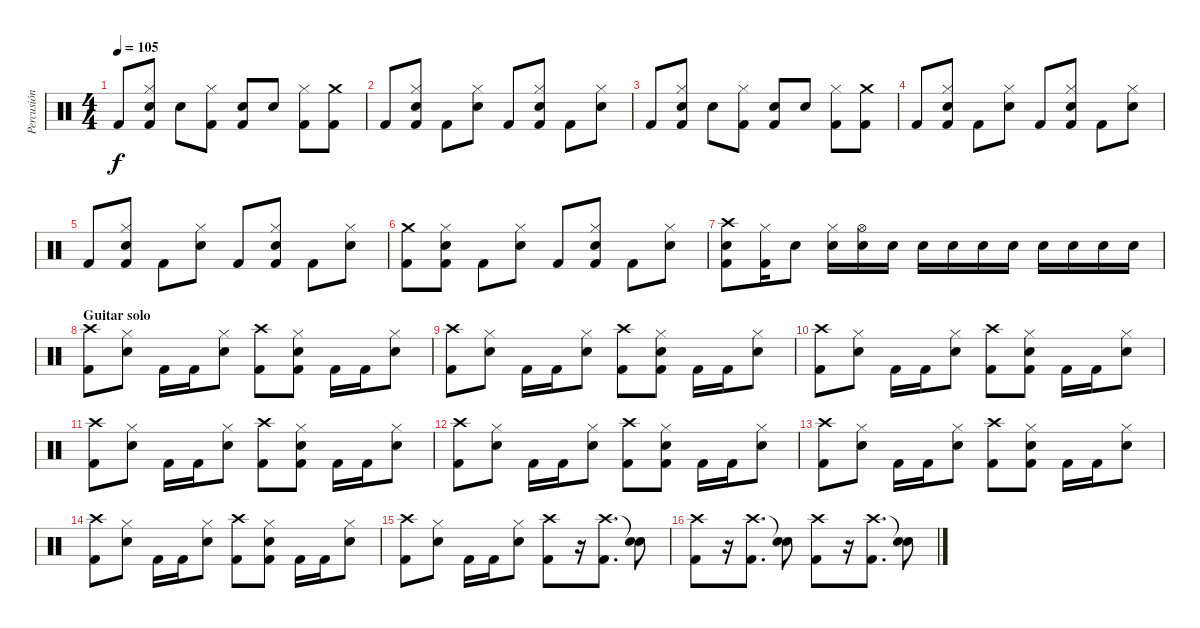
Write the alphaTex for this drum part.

\track ("Percusión" "Percusión") {instrument percussion}
\staff {score}
\articulation defaults
\ts (4 4)
\tempo 105
\clef neutral
\ks c "Kick (hit) 2".8{dy f}
("Hi-Hat (closed)" "Snare (hit) 2" "Kick (hit) 2").8 "Snare (hit) 2".8 ("Hi-Hat (closed)" "Kick (hit) 2").8 ("Snare (hit) 2" "Kick (hit) 2").8 "Snare (hit) 2".8 ("Hi-Hat (closed)" "Kick (hit) 2").8 ("Crash medium (hit)" "Kick (hit) 2").8 |
"Kick (hit) 2".8 ("Hi-Hat (closed)" "Snare (hit) 2" "Kick (hit) 2").8 "Kick (hit) 2".8 ("Hi-Hat (closed)" "Snare (hit) 2").8 "Kick (hit) 2".8 ("Hi-Hat (closed)" "Snare (hit) 2" "Kick (hit) 2").8 "Kick (hit) 2".8 ("Hi-Hat (closed)" "Snare (hit) 2").8 |
"Kick (hit) 2".8 ("Hi-Hat (closed)" "Snare (hit) 2" "Kick (hit) 2").8 "Snare (hit) 2".8 ("Hi-Hat (closed)" "Kick (hit) 2").8 ("Snare (hit) 2" "Kick (hit) 2").8 "Snare (hit) 2".8 ("Hi-Hat (closed)" "Kick (hit) 2").8 ("Crash medium (hit)" "Kick (hit) 2").8 |
"Kick (hit) 2".8 ("Hi-Hat (closed)" "Snare (hit) 2" "Kick (hit) 2").8 "Kick (hit) 2".8 ("Hi-Hat (closed)" "Snare (hit) 2").8 "Kick (hit) 2".8 ("Hi-Hat (closed)" "Snare (hit) 2" "Kick (hit) 2").8 "Kick (hit) 2".8 ("Hi-Hat (closed)" "Snare (hit) 2").8 |
"Kick (hit) 2".8 ("Hi-Hat (closed)" "Snare (hit) 2" "Kick (hit) 2").8 "Kick (hit) 2".8 ("Hi-Hat (closed)" "Snare (hit) 2").8 "Kick (hit) 2".8 ("Hi-Hat (closed)" "Snare (hit) 2" "Kick (hit) 2").8 "Kick (hit) 2".8 ("Hi-Hat (closed)" "Snare (hit) 2").8 |
("Crash medium (hit)" "Kick (hit) 2").8 ("Hi-Hat (closed)" "Snare (hit) 2" "Kick (hit) 2").8 "Kick (hit) 2".8 ("Hi-Hat (closed)" "Snare (hit) 2").8 "Kick (hit) 2".8 ("Hi-Hat (closed)" "Snare (hit) 2" "Kick (hit) 2").8 "Kick (hit) 2".8 ("Hi-Hat (closed)" "Snare (hit) 2").8 |
("Crash high (hit)" "Snare (hit) 2" "Kick (hit) 2").8 ("Hi-Hat (closed)" "Kick (hit) 2").16 "Snare (hit) 2".8 ("Hi-Hat (closed)" "Snare (hit) 2").16 ("Hi-Hat (open)" "Snare (hit) 2").16 "Snare (hit) 2".16 "Snare (hit) 2".16 "Snare (hit) 2".16 "Snare (hit) 2".16 "Snare (hit) 2".16 "Snare (hit) 2".16 "Snare (hit) 2".16 "Snare (hit) 2".16 "Snare (hit) 2".16 |
\section ("" "Guitar solo")
("Crash high (hit)" "Kick (hit) 2").8 ("Hi-Hat (closed)" "Snare (hit) 2").8 "Kick (hit) 2".16 "Kick (hit) 2".16 ("Hi-Hat (closed)" "Snare (hit) 2").8 ("Crash high (hit)" "Kick (hit) 2").8 ("Hi-Hat (closed)" "Snare (hit) 2" "Kick (hit) 2").8 "Kick (hit) 2".16 "Kick (hit) 2".16 ("Hi-Hat (closed)" "Snare (hit) 2").8 |
("Crash high (hit)" "Kick (hit) 2").8 ("Hi-Hat (closed)" "Snare (hit) 2").8 "Kick (hit) 2".16 "Kick (hit) 2".16 ("Hi-Hat (closed)" "Snare (hit) 2").8 ("Crash high (hit)" "Kick (hit) 2").8 ("Hi-Hat (closed)" "Snare (hit) 2" "Kick (hit) 2").8 "Kick (hit) 2".16 "Kick (hit) 2".16 ("Hi-Hat (closed)" "Snare (hit) 2").8 |
("Crash high (hit)" "Kick (hit) 2").8 ("Hi-Hat (closed)" "Snare (hit) 2").8 "Kick (hit) 2".16 "Kick (hit) 2".16 ("Hi-Hat (closed)" "Snare (hit) 2").8 ("Crash high (hit)" "Kick (hit) 2").8 ("Hi-Hat (closed)" "Snare (hit) 2" "Kick (hit) 2").8 "Kick (hit) 2".16 "Kick (hit) 2".16 ("Hi-Hat (closed)" "Snare (hit) 2").8 |
("Crash high (hit)" "Kick (hit) 2").8 ("Hi-Hat (closed)" "Snare (hit) 2").8 "Kick (hit) 2".16 "Kick (hit) 2".16 ("Hi-Hat (closed)" "Snare (hit) 2").8 ("Crash high (hit)" "Kick (hit) 2").8 ("Hi-Hat (closed)" "Snare (hit) 2" "Kick (hit) 2").8 "Kick (hit) 2".16 "Kick (hit) 2".16 ("Hi-Hat (closed)" "Snare (hit) 2").8 |
("Crash high (hit)" "Kick (hit) 2").8 ("Hi-Hat (closed)" "Snare (hit) 2").8 "Kick (hit) 2".16 "Kick (hit) 2".16 ("Hi-Hat (closed)" "Snare (hit) 2").8 ("Crash high (hit)" "Kick (hit) 2").8 ("Hi-Hat (closed)" "Snare (hit) 2" "Kick (hit) 2").8 "Kick (hit) 2".16 "Kick (hit) 2".16 ("Hi-Hat (closed)" "Snare (hit) 2").8 |
("Crash high (hit)" "Kick (hit) 2").8 ("Hi-Hat (closed)" "Snare (hit) 2").8 "Kick (hit) 2".16 "Kick (hit) 2".16 ("Hi-Hat (closed)" "Snare (hit) 2").8 ("Crash high (hit)" "Kick (hit) 2").8 ("Hi-Hat (closed)" "Snare (hit) 2" "Kick (hit) 2").8 "Kick (hit) 2".16 "Kick (hit) 2".16 ("Hi-Hat (closed)" "Snare (hit) 2").8 |
("Crash high (hit)" "Kick (hit) 2").8 ("Hi-Hat (closed)" "Snare (hit) 2").8 "Kick (hit) 2".16 "Kick (hit) 2".16 ("Hi-Hat (closed)" "Snare (hit) 2").8 ("Crash high (hit)" "Kick (hit) 2").8 ("Hi-Hat (closed)" "Snare (hit) 2" "Kick (hit) 2").8 "Kick (hit) 2".16 "Kick (hit) 2".16 ("Hi-Hat (closed)" "Snare (hit) 2").8 |
("Crash high (hit)" "Kick (hit) 2").8 ("Hi-Hat (closed)" "Snare (hit) 2").8 "Kick (hit) 2".16 "Kick (hit) 2".16 ("Hi-Hat (closed)" "Snare (hit) 2").8 ("Crash high (hit)" "Kick (hit) 2").8 r.16 ("Crash high (hit)" "Kick (hit) 2").8{d} ("Snare (hit)"{t} "Snare (hit) 2").8 |
("Crash high (hit)" "Kick (hit) 2").8 r.16 ("Crash high (hit)" "Kick (hit) 2").8{d} ("Snare (hit)"{t} "Snare (hit) 2").8 ("Crash high (hit)" "Kick (hit) 2").8 r.16 ("Crash high (hit)" "Kick (hit) 2").8{d} ("Snare (hit)"{t} "Snare (hit) 2").8
